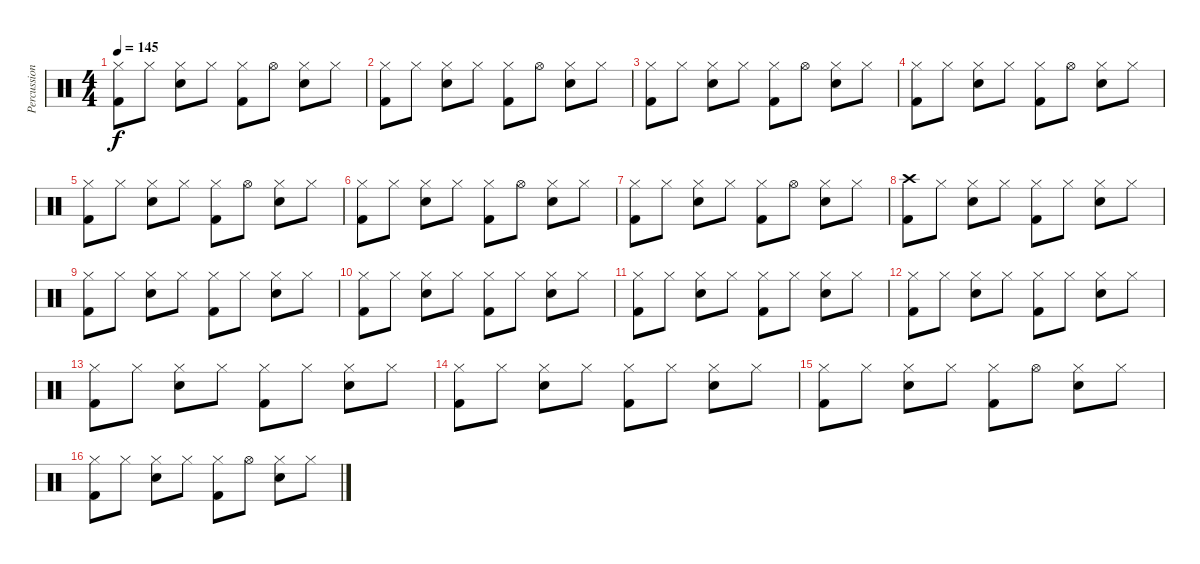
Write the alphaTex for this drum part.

\track ("Percussion" "Percussion") {instrument percussion}
\staff {score}
\articulation defaults
\ts (4 4)
\tempo 145
\clef neutral
\ks c
("Hi-Hat (closed)" "Kick (hit) 2").8{dy f} "Hi-Hat (closed)".8 ("Hi-Hat (closed)" "Snare (hit) 2").8 "Hi-Hat (closed)".8 ("Hi-Hat (closed)" "Kick (hit) 2").8 "Hi-Hat (open)".8 ("Hi-Hat (closed)" "Snare (hit) 2").8 "Hi-Hat (closed)".8 |
("Hi-Hat (closed)" "Kick (hit) 2").8 "Hi-Hat (closed)".8 ("Hi-Hat (closed)" "Snare (hit) 2").8 "Hi-Hat (closed)".8 ("Hi-Hat (closed)" "Kick (hit) 2").8 "Hi-Hat (open)".8 ("Hi-Hat (closed)" "Snare (hit) 2").8 "Hi-Hat (closed)".8 |
("Hi-Hat (closed)" "Kick (hit) 2").8 "Hi-Hat (closed)".8 ("Hi-Hat (closed)" "Snare (hit) 2").8 "Hi-Hat (closed)".8 ("Hi-Hat (closed)" "Kick (hit) 2").8 "Hi-Hat (open)".8 ("Hi-Hat (closed)" "Snare (hit) 2").8 "Hi-Hat (closed)".8 |
("Hi-Hat (closed)" "Kick (hit) 2").8 "Hi-Hat (closed)".8 ("Hi-Hat (closed)" "Snare (hit) 2").8 "Hi-Hat (closed)".8 ("Hi-Hat (closed)" "Kick (hit) 2").8 "Hi-Hat (open)".8 ("Hi-Hat (closed)" "Snare (hit) 2").8 "Hi-Hat (closed)".8 |
("Hi-Hat (closed)" "Kick (hit) 2").8 "Hi-Hat (closed)".8 ("Hi-Hat (closed)" "Snare (hit) 2").8 "Hi-Hat (closed)".8 ("Hi-Hat (closed)" "Kick (hit) 2").8 "Hi-Hat (open)".8 ("Hi-Hat (closed)" "Snare (hit) 2").8 "Hi-Hat (closed)".8 |
("Hi-Hat (closed)" "Kick (hit) 2").8 "Hi-Hat (closed)".8 ("Hi-Hat (closed)" "Snare (hit) 2").8 "Hi-Hat (closed)".8 ("Hi-Hat (closed)" "Kick (hit) 2").8 "Hi-Hat (open)".8 ("Hi-Hat (closed)" "Snare (hit) 2").8 "Hi-Hat (closed)".8 |
("Hi-Hat (closed)" "Kick (hit) 2").8 "Hi-Hat (closed)".8 ("Hi-Hat (closed)" "Snare (hit) 2").8 "Hi-Hat (closed)".8 ("Hi-Hat (closed)" "Kick (hit) 2").8 "Hi-Hat (open)".8 ("Hi-Hat (closed)" "Snare (hit) 2").8 "Hi-Hat (closed)".8 |
("Crash high (hit)" "Kick (hit) 2").8 "Hi-Hat (closed)".8 ("Hi-Hat (closed)" "Snare (hit) 2").8 "Hi-Hat (closed)".8 ("Hi-Hat (closed)" "Kick (hit) 2").8 "Hi-Hat (closed)".8 ("Hi-Hat (closed)" "Snare (hit) 2").8 "Hi-Hat (closed)".8 |
("Hi-Hat (closed)" "Kick (hit) 2").8 "Hi-Hat (closed)".8 ("Hi-Hat (closed)" "Snare (hit) 2").8 "Hi-Hat (closed)".8 ("Hi-Hat (closed)" "Kick (hit) 2").8 "Hi-Hat (closed)".8 ("Hi-Hat (closed)" "Snare (hit) 2").8 "Hi-Hat (closed)".8 |
("Hi-Hat (closed)" "Kick (hit) 2").8 "Hi-Hat (closed)".8 ("Hi-Hat (closed)" "Snare (hit) 2").8 "Hi-Hat (closed)".8 ("Hi-Hat (closed)" "Kick (hit) 2").8 "Hi-Hat (closed)".8 ("Hi-Hat (closed)" "Snare (hit) 2").8 "Hi-Hat (closed)".8 |
("Hi-Hat (closed)" "Kick (hit) 2").8 "Hi-Hat (closed)".8 ("Hi-Hat (closed)" "Snare (hit) 2").8 "Hi-Hat (closed)".8 ("Hi-Hat (closed)" "Kick (hit) 2").8 "Hi-Hat (closed)".8 ("Hi-Hat (closed)" "Snare (hit) 2").8 "Hi-Hat (closed)".8 |
("Hi-Hat (closed)" "Kick (hit) 2").8 "Hi-Hat (closed)".8 ("Hi-Hat (closed)" "Snare (hit) 2").8 "Hi-Hat (closed)".8 ("Hi-Hat (closed)" "Kick (hit) 2").8 "Hi-Hat (closed)".8 ("Hi-Hat (closed)" "Snare (hit) 2").8 "Hi-Hat (closed)".8 |
("Hi-Hat (closed)" "Kick (hit) 2").8 "Hi-Hat (closed)".8 ("Hi-Hat (closed)" "Snare (hit) 2").8 "Hi-Hat (closed)".8 ("Hi-Hat (closed)" "Kick (hit) 2").8 "Hi-Hat (closed)".8 ("Hi-Hat (closed)" "Snare (hit) 2").8 "Hi-Hat (closed)".8 |
("Hi-Hat (closed)" "Kick (hit) 2").8 "Hi-Hat (closed)".8 ("Hi-Hat (closed)" "Snare (hit) 2").8 "Hi-Hat (closed)".8 ("Hi-Hat (closed)" "Kick (hit) 2").8 "Hi-Hat (closed)".8 ("Hi-Hat (closed)" "Snare (hit) 2").8 "Hi-Hat (closed)".8 |
("Hi-Hat (closed)" "Kick (hit) 2").8 "Hi-Hat (closed)".8 ("Hi-Hat (closed)" "Snare (hit) 2").8 "Hi-Hat (closed)".8 ("Hi-Hat (closed)" "Kick (hit) 2").8 "Hi-Hat (open)".8 ("Hi-Hat (closed)" "Snare (hit) 2").8 "Hi-Hat (closed)".8 |
("Hi-Hat (closed)" "Kick (hit) 2").8 "Hi-Hat (closed)".8 ("Hi-Hat (closed)" "Snare (hit) 2").8 "Hi-Hat (closed)".8 ("Hi-Hat (closed)" "Kick (hit) 2").8 "Hi-Hat (open)".8 ("Hi-Hat (closed)" "Snare (hit) 2").8 "Hi-Hat (closed)".8
